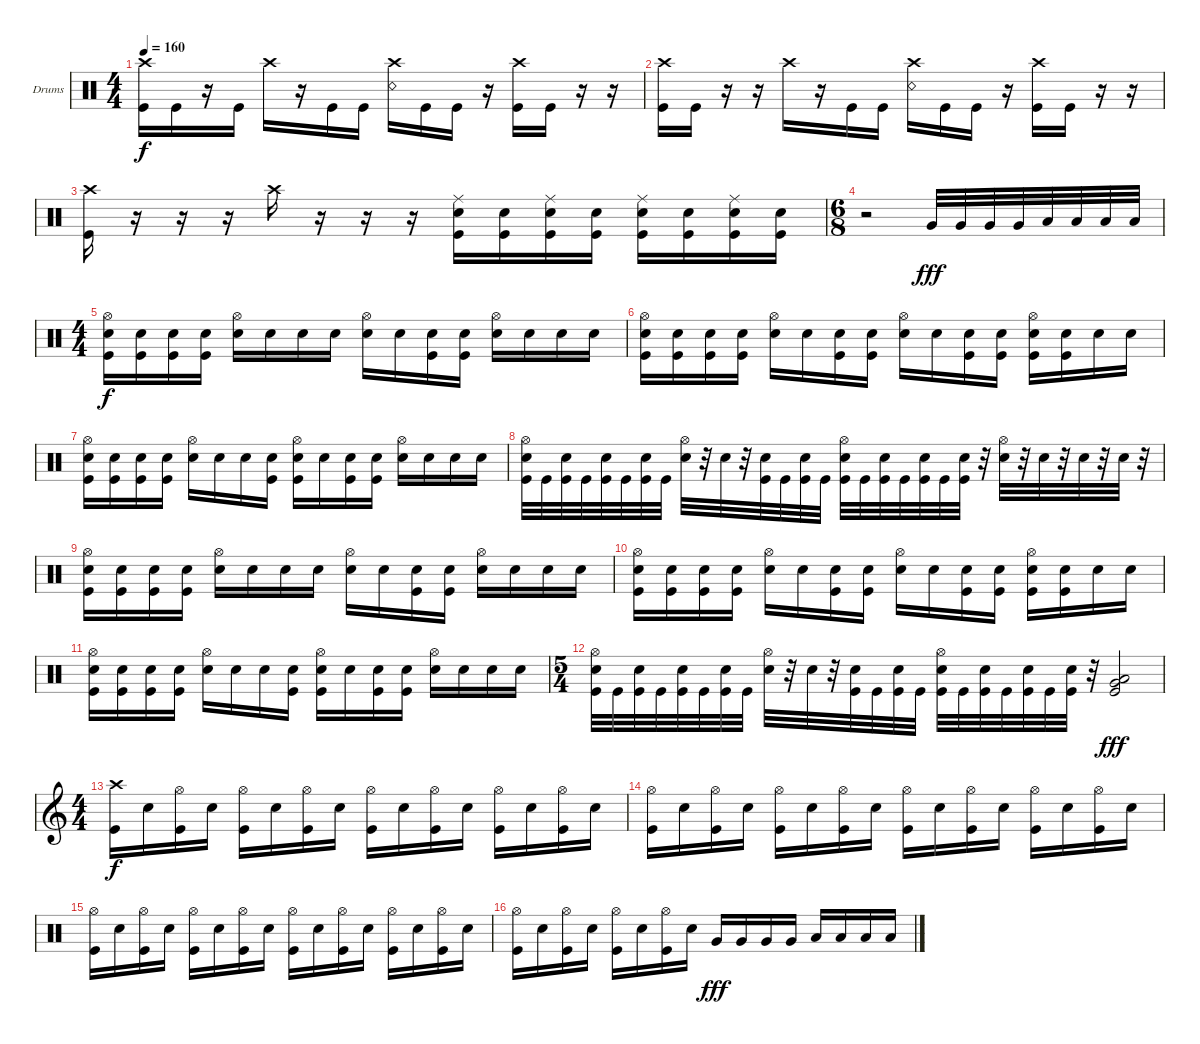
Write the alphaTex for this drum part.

\defaultSystemsLayout 4
\bracketExtendMode groupsimilarinstruments
\firstSystemTrackNameOrientation horizontal
\otherSystemsTrackNameOrientation horizontal
\track ("Drumkit" "Drums") {instrument percussion}
\staff {score}
\articulation defaults
\ts (4 4)
\tempo 160
\clef neutral
\ks c
("Kick (hit)" "Crash high (hit)").16{dy f} "Kick (hit)".16 r.16 "Kick (hit)".16 "Crash high (hit)".16 r.16 "Kick (hit)".16 "Kick (hit)".16 ("Snare (rim shot)" "Crash high (hit)").16 "Kick (hit)".16 "Kick (hit)".16 r.16 ("Kick (hit)" "Crash high (hit)").16 "Kick (hit)".16 r.16 r.16 |
("Kick (hit)" "Crash high (hit)").16 "Kick (hit)".16 r.16 r.16 "Crash high (hit)".16 r.16 "Kick (hit)".16 "Kick (hit)".16 ("Snare (rim shot)" "Crash high (hit)").16 "Kick (hit)".16 "Kick (hit)".16 r.16 ("Kick (hit)" "Crash high (hit)").16 "Kick (hit)".16 r.16 r.16 |
("Kick (hit)" "Crash high (hit)").16 r.16 r.16 r.16 "Crash high (hit)".16 r.16 r.16 r.16 ("Snare (hit) 2" "Kick (hit)" "Ride (middle)").16 ("Kick (hit)" "Snare (hit) 2").16 ("Kick (hit)" "Snare (hit) 2" "Ride (middle)").16 ("Kick (hit)" "Snare (hit) 2").16 ("Kick (hit)" "Snare (hit) 2" "Ride (middle)").16 ("Kick (hit)" "Snare (hit) 2").16 ("Kick (hit)" "Snare (hit) 2" "Ride (middle)").16 ("Kick (hit)" "Snare (hit) 2").16 |
\ts (6 8)
r.2 "Very Low Tom (hit)".32{dy fff} "Very Low Tom (hit)".32 "Very Low Tom (hit)".32 "Very Low Tom (hit)".32 "Low Tom (hit)".32 "Low Tom (hit)".32 "Low Tom (hit)".32 "Low Tom (hit)".32 |
\ts (4 4)
("Snare (hit) 2" "Kick (hit)" "Hi-Hat (open)").16{dy f} ("Snare (hit) 2" "Kick (hit)").16 ("Snare (hit) 2" "Kick (hit)").16 ("Snare (hit) 2" "Kick (hit)").16 ("Snare (hit) 2" "Hi-Hat (open)").16 "Snare (hit) 2".16 "Snare (hit) 2".16 "Snare (hit) 2".16 ("Snare (hit) 2" "Hi-Hat (open)").16 "Snare (hit) 2".16 ("Snare (hit) 2" "Kick (hit)").16 ("Snare (hit) 2" "Kick (hit)").16 ("Snare (hit) 2" "Hi-Hat (open)").16 "Snare (hit) 2".16 "Snare (hit) 2".16 "Snare (hit) 2".16 |
("Snare (hit) 2" "Kick (hit)" "Hi-Hat (open)").16 ("Snare (hit) 2" "Kick (hit)").16 ("Snare (hit) 2" "Kick (hit)").16 ("Snare (hit) 2" "Kick (hit)").16 ("Snare (hit) 2" "Hi-Hat (open)").16 "Snare (hit) 2".16 ("Snare (hit) 2" "Kick (hit)").16 ("Snare (hit) 2" "Kick (hit)").16 ("Snare (hit) 2" "Hi-Hat (open)").16 "Snare (hit) 2".16 ("Snare (hit) 2" "Kick (hit)").16 ("Snare (hit) 2" "Kick (hit)").16 ("Snare (hit) 2" "Hi-Hat (open)" "Kick (hit)").16 ("Snare (hit) 2" "Kick (hit)").16 "Snare (hit) 2".16 "Snare (hit) 2".16 |
("Snare (hit) 2" "Kick (hit)" "Hi-Hat (open)").16 ("Snare (hit) 2" "Kick (hit)").16 ("Snare (hit) 2" "Kick (hit)").16 ("Snare (hit) 2" "Kick (hit)").16 ("Snare (hit) 2" "Hi-Hat (open)").16 "Snare (hit) 2".16 "Snare (hit) 2".16 ("Snare (hit) 2" "Kick (hit)").16 ("Snare (hit) 2" "Hi-Hat (open)" "Kick (hit)").16 "Snare (hit) 2".16 ("Snare (hit) 2" "Kick (hit)").16 ("Snare (hit) 2" "Kick (hit)").16 ("Snare (hit) 2" "Hi-Hat (open)").16 "Snare (hit) 2".16 "Snare (hit) 2".16 "Snare (hit) 2".16 |
("Snare (hit) 2" "Hi-Hat (open)" "Kick (hit)").32 "Kick (hit)".32 ("Snare (hit) 2" "Kick (hit)").32 "Kick (hit)".32 ("Snare (hit) 2" "Kick (hit)").32 "Kick (hit)".32 ("Snare (hit) 2" "Kick (hit)").32 "Kick (hit)".32 ("Snare (hit) 2" "Hi-Hat (open)").32 r.32 "Snare (hit) 2".32 r.32 ("Snare (hit) 2" "Kick (hit)").32 "Kick (hit)".32 ("Snare (hit) 2" "Kick (hit)").32 "Kick (hit)".32 ("Snare (hit) 2" "Hi-Hat (open)" "Kick (hit)").32 "Kick (hit)".32 ("Snare (hit) 2" "Kick (hit)").32 "Kick (hit)".32 ("Snare (hit) 2" "Kick (hit)").32 "Kick (hit)".32 ("Snare (hit) 2" "Kick (hit)").32 r.32 ("Snare (hit) 2" "Hi-Hat (open)").32 r.32 "Snare (hit) 2".32 r.32 "Snare (hit) 2".32 r.32 "Snare (hit) 2".32 r.32 |
("Snare (hit) 2" "Kick (hit)" "Hi-Hat (open)").16 ("Snare (hit) 2" "Kick (hit)").16 ("Snare (hit) 2" "Kick (hit)").16 ("Snare (hit) 2" "Kick (hit)").16 ("Snare (hit) 2" "Hi-Hat (open)").16 "Snare (hit) 2".16 "Snare (hit) 2".16 "Snare (hit) 2".16 ("Snare (hit) 2" "Hi-Hat (open)").16 "Snare (hit) 2".16 ("Snare (hit) 2" "Kick (hit)").16 ("Snare (hit) 2" "Kick (hit)").16 ("Snare (hit) 2" "Hi-Hat (open)").16 "Snare (hit) 2".16 "Snare (hit) 2".16 "Snare (hit) 2".16 |
("Snare (hit) 2" "Kick (hit)" "Hi-Hat (open)").16 ("Snare (hit) 2" "Kick (hit)").16 ("Snare (hit) 2" "Kick (hit)").16 ("Snare (hit) 2" "Kick (hit)").16 ("Snare (hit) 2" "Hi-Hat (open)").16 "Snare (hit) 2".16 ("Snare (hit) 2" "Kick (hit)").16 ("Snare (hit) 2" "Kick (hit)").16 ("Snare (hit) 2" "Hi-Hat (open)").16 "Snare (hit) 2".16 ("Snare (hit) 2" "Kick (hit)").16 ("Snare (hit) 2" "Kick (hit)").16 ("Snare (hit) 2" "Hi-Hat (open)" "Kick (hit)").16 ("Snare (hit) 2" "Kick (hit)").16 "Snare (hit) 2".16 "Snare (hit) 2".16 |
("Snare (hit) 2" "Kick (hit)" "Hi-Hat (open)").16 ("Snare (hit) 2" "Kick (hit)").16 ("Snare (hit) 2" "Kick (hit)").16 ("Snare (hit) 2" "Kick (hit)").16 ("Snare (hit) 2" "Hi-Hat (open)").16 "Snare (hit) 2".16 "Snare (hit) 2".16 ("Snare (hit) 2" "Kick (hit)").16 ("Snare (hit) 2" "Hi-Hat (open)" "Kick (hit)").16 "Snare (hit) 2".16 ("Snare (hit) 2" "Kick (hit)").16 ("Snare (hit) 2" "Kick (hit)").16 ("Snare (hit) 2" "Hi-Hat (open)").16 "Snare (hit) 2".16 "Snare (hit) 2".16 "Snare (hit) 2".16 |
\ts (5 4)
("Snare (hit) 2" "Hi-Hat (open)" "Kick (hit)").32 "Kick (hit)".32 ("Snare (hit) 2" "Kick (hit)").32 "Kick (hit)".32 ("Snare (hit) 2" "Kick (hit)").32 "Kick (hit)".32 ("Snare (hit) 2" "Kick (hit)").32 "Kick (hit)".32 ("Snare (hit) 2" "Hi-Hat (open)").32 r.32 "Snare (hit) 2".32 r.32 ("Snare (hit) 2" "Kick (hit)").32 "Kick (hit)".32 ("Snare (hit) 2" "Kick (hit)").32 "Kick (hit)".32 ("Snare (hit) 2" "Hi-Hat (open)" "Kick (hit)").32 "Kick (hit)".32 ("Snare (hit) 2" "Kick (hit)").32 "Kick (hit)".32 ("Snare (hit) 2" "Kick (hit)").32 "Kick (hit)".32 ("Snare (hit) 2" "Kick (hit)").32 r.32 ("Kick (hit)" "Very Low Tom (hit)" "Low Tom (hit)").2{dy fff} |
\ts (4 4)
\clef g2
("Kick (hit)" "Crash high (hit)").16{dy f} "Snare (hit) 2".16 ("Kick (hit)" "Hi-Hat (open)").16 "Snare (hit) 2".16 ("Kick (hit)" "Hi-Hat (open)").16 "Snare (hit) 2".16 ("Kick (hit)" "Hi-Hat (open)").16 "Snare (hit) 2".16 ("Kick (hit)" "Hi-Hat (open)").16 "Snare (hit) 2".16 ("Kick (hit)" "Hi-Hat (open)").16 "Snare (hit) 2".16 ("Kick (hit)" "Hi-Hat (open)").16 "Snare (hit) 2".16 ("Kick (hit)" "Hi-Hat (open)").16 "Snare (hit) 2".16 |
("Kick (hit)" "Hi-Hat (open)").16 "Snare (hit) 2".16 ("Kick (hit)" "Hi-Hat (open)").16 "Snare (hit) 2".16 ("Kick (hit)" "Hi-Hat (open)").16 "Snare (hit) 2".16 ("Kick (hit)" "Hi-Hat (open)").16 "Snare (hit) 2".16 ("Kick (hit)" "Hi-Hat (open)").16 "Snare (hit) 2".16 ("Kick (hit)" "Hi-Hat (open)").16 "Snare (hit) 2".16 ("Kick (hit)" "Hi-Hat (open)").16 "Snare (hit) 2".16 ("Kick (hit)" "Hi-Hat (open)").16 "Snare (hit) 2".16 |
\clef neutral
("Kick (hit)" "Hi-Hat (open)").16 "Snare (hit) 2".16 ("Kick (hit)" "Hi-Hat (open)").16 "Snare (hit) 2".16 ("Kick (hit)" "Hi-Hat (open)").16 "Snare (hit) 2".16 ("Kick (hit)" "Hi-Hat (open)").16 "Snare (hit) 2".16 ("Kick (hit)" "Hi-Hat (open)").16 "Snare (hit) 2".16 ("Kick (hit)" "Hi-Hat (open)").16 "Snare (hit) 2".16 ("Kick (hit)" "Hi-Hat (open)").16 "Snare (hit) 2".16 ("Kick (hit)" "Hi-Hat (open)").16 "Snare (hit) 2".16 |
("Kick (hit)" "Hi-Hat (open)").16 "Snare (hit) 2".16 ("Kick (hit)" "Hi-Hat (open)").16 "Snare (hit) 2".16 ("Kick (hit)" "Hi-Hat (open)").16 "Snare (hit) 2".16 ("Kick (hit)" "Hi-Hat (open)").16 "Snare (hit) 2".16 "Very Low Tom (hit)".16{dy fff} "Very Low Tom (hit)".16 "Very Low Tom (hit)".16 "Very Low Tom (hit)".16 "Low Tom (hit)".16 "Low Tom (hit)".16 "Low Tom (hit)".16 "Low Tom (hit)".16
